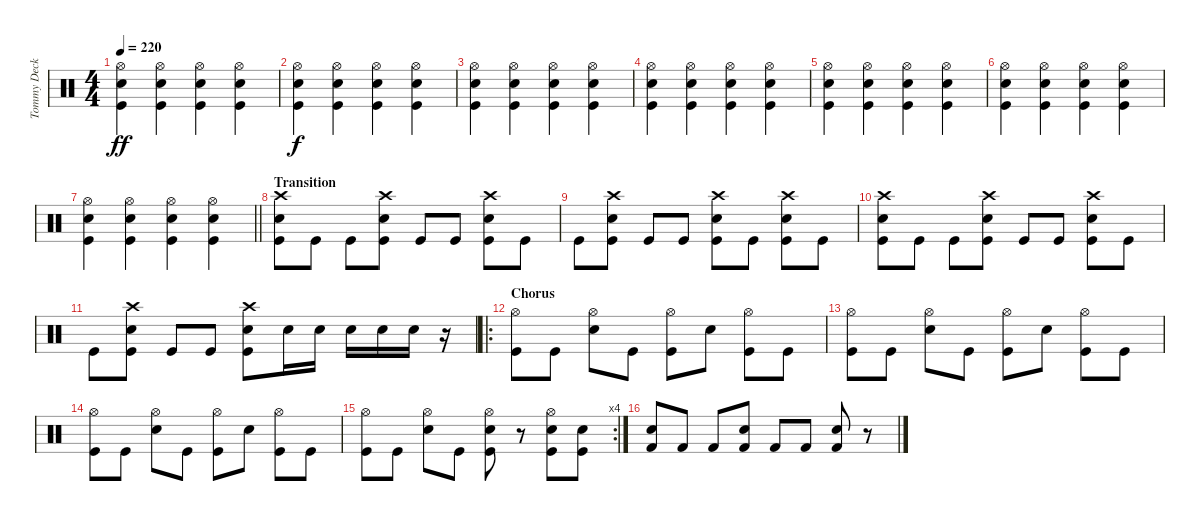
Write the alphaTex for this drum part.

\track ("Tommy Decker" "Tommy Deck") {instrument percussion}
\staff {score}
\articulation defaults
\ts (4 4)
\tempo 220
\clef neutral
\ks c
("Hi-Hat (open)" "Electric Snare (hit)" "Kick (hit)").4{dy ff} ("Hi-Hat (open)" "Electric Snare (hit)" "Kick (hit)").4 ("Hi-Hat (open)" "Electric Snare (hit)" "Kick (hit)").4 ("Hi-Hat (open)" "Electric Snare (hit)" "Kick (hit)").4 |
("Hi-Hat (open)" "Electric Snare (hit)" "Kick (hit)").4{dy f} ("Hi-Hat (open)" "Electric Snare (hit)" "Kick (hit)").4 ("Hi-Hat (open)" "Electric Snare (hit)" "Kick (hit)").4 ("Hi-Hat (open)" "Electric Snare (hit)" "Kick (hit)").4 |
("Hi-Hat (open)" "Electric Snare (hit)" "Kick (hit)").4 ("Hi-Hat (open)" "Electric Snare (hit)" "Kick (hit)").4 ("Hi-Hat (open)" "Electric Snare (hit)" "Kick (hit)").4 ("Hi-Hat (open)" "Electric Snare (hit)" "Kick (hit)").4 |
("Hi-Hat (open)" "Electric Snare (hit)" "Kick (hit)").4 ("Hi-Hat (open)" "Electric Snare (hit)" "Kick (hit)").4 ("Hi-Hat (open)" "Electric Snare (hit)" "Kick (hit)").4 ("Hi-Hat (open)" "Electric Snare (hit)" "Kick (hit)").4 |
("Hi-Hat (open)" "Electric Snare (hit)" "Kick (hit)").4 ("Hi-Hat (open)" "Electric Snare (hit)" "Kick (hit)").4 ("Hi-Hat (open)" "Electric Snare (hit)" "Kick (hit)").4 ("Hi-Hat (open)" "Electric Snare (hit)" "Kick (hit)").4 |
("Hi-Hat (open)" "Electric Snare (hit)" "Kick (hit)").4 ("Hi-Hat (open)" "Electric Snare (hit)" "Kick (hit)").4 ("Hi-Hat (open)" "Electric Snare (hit)" "Kick (hit)").4 ("Hi-Hat (open)" "Electric Snare (hit)" "Kick (hit)").4 |
\barLineRight lightlight
("Hi-Hat (open)" "Electric Snare (hit)" "Kick (hit)").4 ("Hi-Hat (open)" "Electric Snare (hit)" "Kick (hit)").4 ("Hi-Hat (open)" "Electric Snare (hit)" "Kick (hit)").4 ("Hi-Hat (open)" "Electric Snare (hit)" "Kick (hit)").4 |
\section ("" "Transition")
("Crash high (hit)" "Electric Snare (hit)" "Kick (hit)").8 "Kick (hit)".8 "Kick (hit)".8 ("Crash high (hit)" "Electric Snare (hit)" "Kick (hit)").8 "Kick (hit)".8 "Kick (hit)".8 ("Crash high (hit)" "Electric Snare (hit)" "Kick (hit)").8 "Kick (hit)".8 |
"Kick (hit)".8 ("Crash high (hit)" "Electric Snare (hit)" "Kick (hit)").8 "Kick (hit)".8 "Kick (hit)".8 ("Crash high (hit)" "Electric Snare (hit)" "Kick (hit)").8 "Kick (hit)".8 ("Crash high (hit)" "Electric Snare (hit)" "Kick (hit)").8 "Kick (hit)".8 |
("Crash high (hit)" "Electric Snare (hit)" "Kick (hit)").8 "Kick (hit)".8 "Kick (hit)".8 ("Crash high (hit)" "Electric Snare (hit)" "Kick (hit)").8 "Kick (hit)".8 "Kick (hit)".8 ("Crash high (hit)" "Electric Snare (hit)" "Kick (hit)").8 "Kick (hit)".8 |
"Kick (hit)".8 ("Crash high (hit)" "Electric Snare (hit)" "Kick (hit)").8 "Kick (hit)".8 "Kick (hit)".8 ("Crash high (hit)" "Electric Snare (hit)" "Kick (hit)").8 "Electric Snare (hit)".16 "Electric Snare (hit)".16 "Electric Snare (hit)".16 "Electric Snare (hit)".16 "Electric Snare (hit)".16 r.16 |
\ro
\section ("" "Chorus")
("Hi-Hat (open)" "Kick (hit)").8 "Kick (hit)".8 ("Hi-Hat (open)" "Electric Snare (hit)").8 "Kick (hit)".8 ("Hi-Hat (open)" "Kick (hit)").8 "Electric Snare (hit)".8 ("Hi-Hat (open)" "Kick (hit)").8 "Kick (hit)".8 |
("Hi-Hat (open)" "Kick (hit)").8 "Kick (hit)".8 ("Hi-Hat (open)" "Electric Snare (hit)").8 "Kick (hit)".8 ("Hi-Hat (open)" "Kick (hit)").8 "Electric Snare (hit)".8 ("Hi-Hat (open)" "Kick (hit)").8 "Kick (hit)".8 |
("Hi-Hat (open)" "Kick (hit)").8 "Kick (hit)".8 ("Hi-Hat (open)" "Electric Snare (hit)").8 "Kick (hit)".8 ("Hi-Hat (open)" "Kick (hit)").8 "Electric Snare (hit)".8 ("Hi-Hat (open)" "Kick (hit)").8 "Kick (hit)".8 |
\rc 4
("Hi-Hat (open)" "Kick (hit)").8 "Kick (hit)".8 ("Hi-Hat (open)" "Electric Snare (hit)").8 "Kick (hit)".8 ("Hi-Hat (open)" "Electric Snare (hit)" "Kick (hit)").8 r.8 ("Hi-Hat (open)" "Electric Snare (hit)" "Kick (hit)").8 ("Electric Snare (hit)" "Kick (hit)").8 |
("Electric Snare (hit)" "Kick (hit) 2").8 "Kick (hit) 2".8 "Kick (hit) 2".8 ("Electric Snare (hit)" "Kick (hit) 2").8 "Kick (hit) 2".8 "Kick (hit) 2".8 ("Electric Snare (hit)" "Kick (hit) 2").8 r.8
